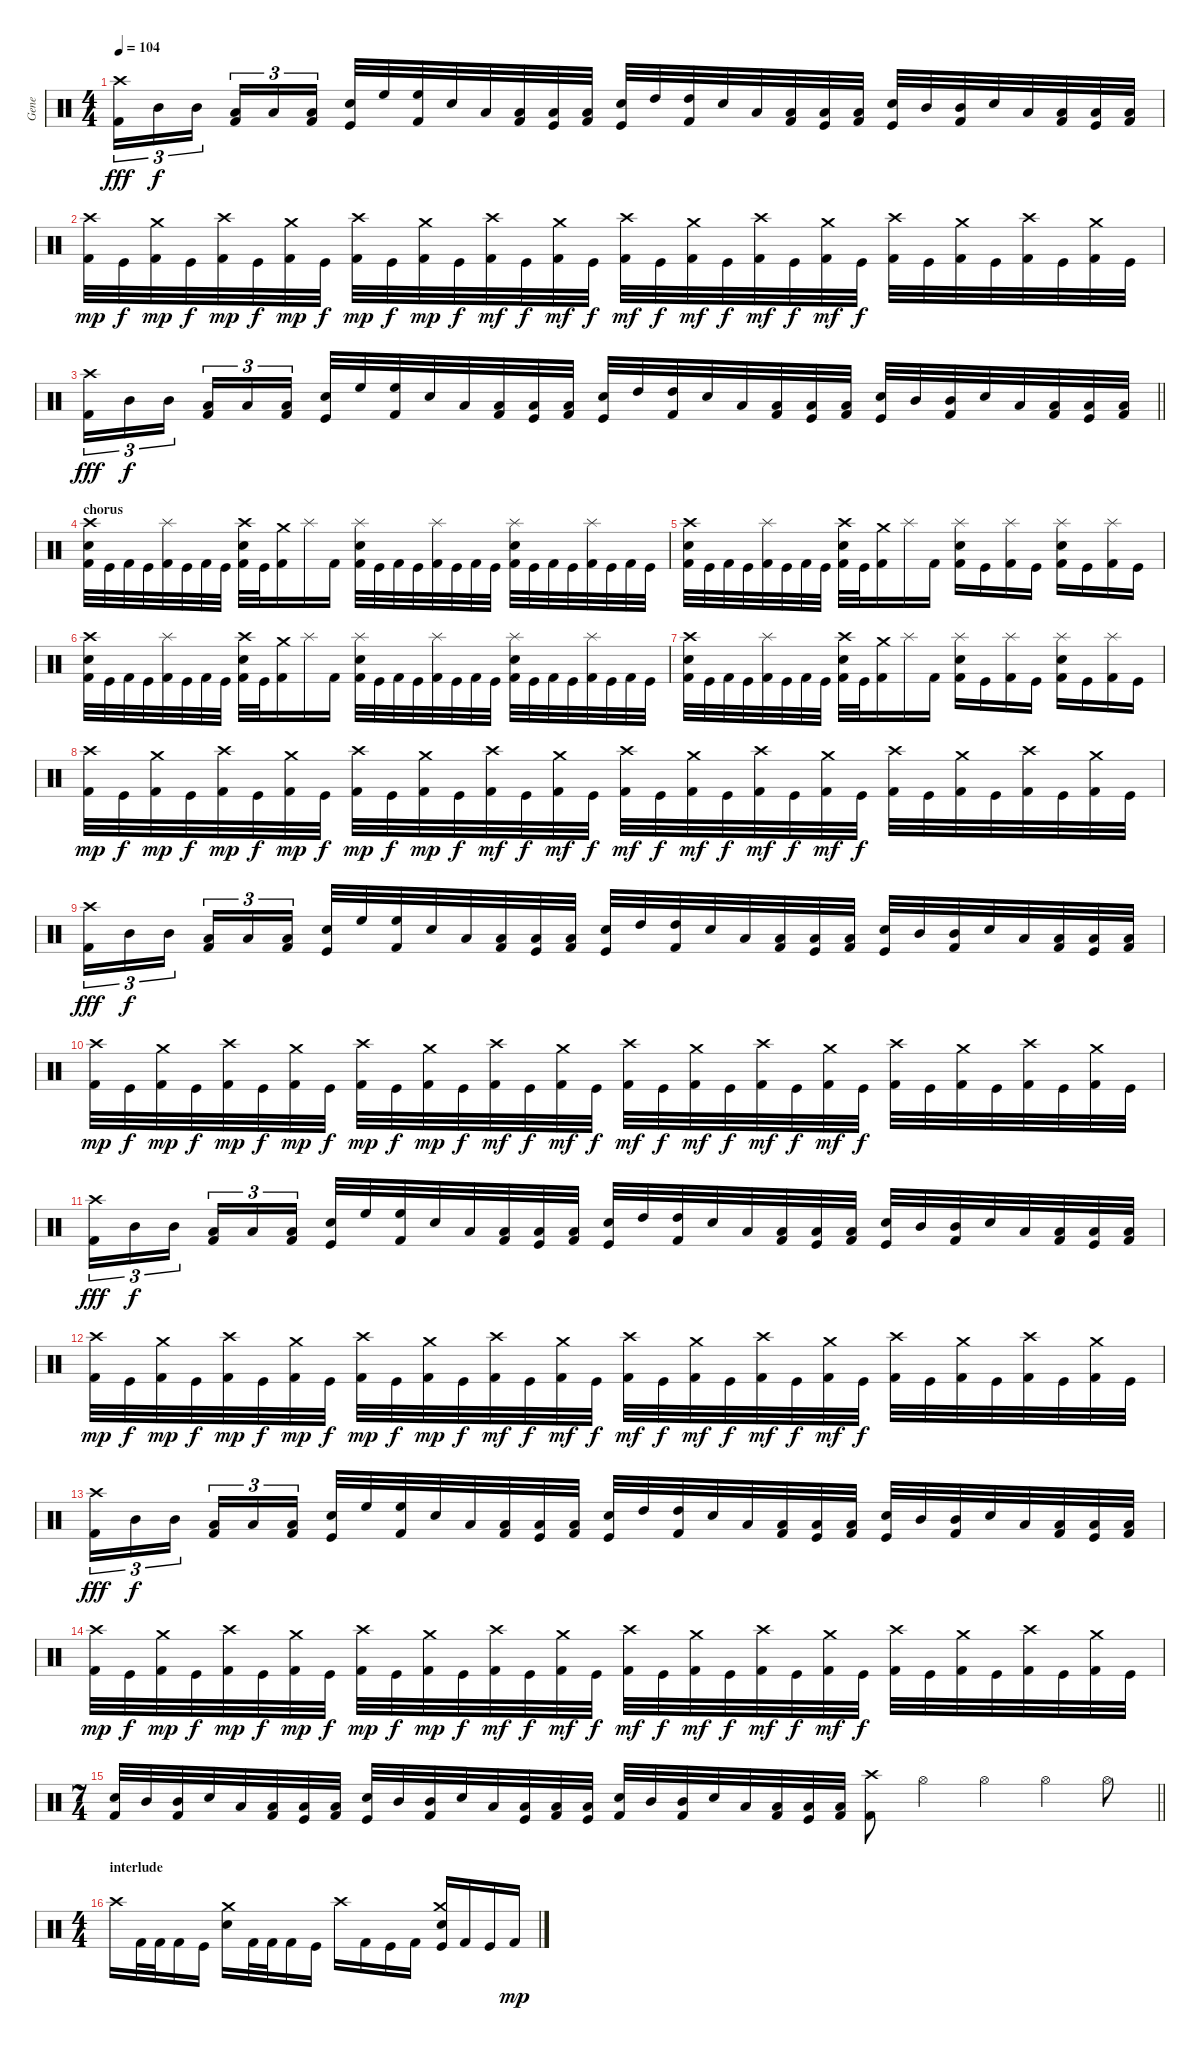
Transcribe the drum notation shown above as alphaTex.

\track ("Gene" "Gene") {instrument percussion}
\staff {score}
\articulation defaults
\ts (4 4)
\tempo 104
\clef neutral
\ks c
("Crash high (hit)" "Kick (hit) 2").16{tu (3 2) dy fff} "Mid Tom (hit)".16{tu (3 2) dy f} "Mid Tom (hit)".16{tu (3 2) beam splitsecondary} ("Low Tom (hit)" "Kick (hit) 2").16{tu (3 2)} "Low Tom (hit)".16{tu (3 2)} ("Low Tom (hit)" "Kick (hit) 2").16{tu (3 2)} ("Electric Snare (hit)" "Kick (hit)").32 "High Floor Tom (hit)".32 ("High Floor Tom (hit)" "Kick (hit) 2").32 "Electric Snare (hit)".32 "Low Tom (hit)".32 ("Low Tom (hit)" "Kick (hit) 2").32 ("Low Tom (hit)" "Kick (hit)").32 ("Low Tom (hit)" "Kick (hit) 2").32 ("Electric Snare (hit)" "Kick (hit)").32 "High Tom (hit)".32 ("High Tom (hit)" "Kick (hit) 2").32 "Electric Snare (hit)".32 "Low Tom (hit)".32 ("Low Tom (hit)" "Kick (hit) 2").32 ("Low Tom (hit)" "Kick (hit)").32 ("Low Tom (hit)" "Kick (hit) 2").32 ("Electric Snare (hit)" "Kick (hit)").32 "Mid Tom (hit)".32 ("Mid Tom (hit)" "Kick (hit) 2").32 "Electric Snare (hit)".32 "Low Tom (hit)".32 ("Low Tom (hit)" "Kick (hit) 2").32 ("Low Tom (hit)" "Kick (hit)").32 ("Low Tom (hit)" "Kick (hit) 2").32 |
("Crash high (hit)" "Kick (hit) 2").32{dy mp} "Kick (hit)".32{dy f} ("Crash medium (hit)" "Kick (hit) 2").32{dy mp} "Kick (hit)".32{dy f} ("Crash high (hit)" "Kick (hit) 2").32{dy mp} "Kick (hit)".32{dy f} ("Crash medium (hit)" "Kick (hit) 2").32{dy mp} "Kick (hit)".32{dy f} ("Crash high (hit)" "Kick (hit) 2").32{dy mp} "Kick (hit)".32{dy f} ("Crash medium (hit)" "Kick (hit) 2").32{dy mp} "Kick (hit)".32{dy f} ("Crash high (hit)" "Kick (hit) 2").32{dy mf} "Kick (hit)".32{dy f} ("Crash medium (hit)" "Kick (hit) 2").32{dy mf} "Kick (hit)".32{dy f} ("Crash high (hit)" "Kick (hit) 2").32{dy mf} "Kick (hit)".32{dy f} ("Crash medium (hit)" "Kick (hit) 2").32{dy mf} "Kick (hit)".32{dy f} ("Crash high (hit)" "Kick (hit) 2").32{dy mf} "Kick (hit)".32{dy f} ("Crash medium (hit)" "Kick (hit) 2").32{dy mf} "Kick (hit)".32{dy f} ("Crash high (hit)" "Kick (hit) 2").32 "Kick (hit)".32 ("Crash medium (hit)" "Kick (hit) 2").32 "Kick (hit)".32 ("Crash high (hit)" "Kick (hit) 2").32 "Kick (hit)".32 ("Crash medium (hit)" "Kick (hit) 2").32 "Kick (hit)".32 |
\barLineRight lightlight
("Crash high (hit)" "Kick (hit) 2").16{tu (3 2) dy fff} "Mid Tom (hit)".16{tu (3 2) dy f} "Mid Tom (hit)".16{tu (3 2) beam splitsecondary} ("Low Tom (hit)" "Kick (hit) 2").16{tu (3 2)} "Low Tom (hit)".16{tu (3 2)} ("Low Tom (hit)" "Kick (hit) 2").16{tu (3 2)} ("Electric Snare (hit)" "Kick (hit)").32 "High Floor Tom (hit)".32 ("High Floor Tom (hit)" "Kick (hit) 2").32 "Electric Snare (hit)".32 "Low Tom (hit)".32 ("Low Tom (hit)" "Kick (hit) 2").32 ("Low Tom (hit)" "Kick (hit)").32 ("Low Tom (hit)" "Kick (hit) 2").32 ("Electric Snare (hit)" "Kick (hit)").32 "High Tom (hit)".32 ("High Tom (hit)" "Kick (hit) 2").32 "Electric Snare (hit)".32 "Low Tom (hit)".32 ("Low Tom (hit)" "Kick (hit) 2").32 ("Low Tom (hit)" "Kick (hit)").32 ("Low Tom (hit)" "Kick (hit) 2").32 ("Electric Snare (hit)" "Kick (hit)").32 "Mid Tom (hit)".32 ("Mid Tom (hit)" "Kick (hit) 2").32 "Electric Snare (hit)".32 "Low Tom (hit)".32 ("Low Tom (hit)" "Kick (hit) 2").32 ("Low Tom (hit)" "Kick (hit)").32 ("Low Tom (hit)" "Kick (hit) 2").32 |
\section ("" "chorus")
("Crash high (hit)" "Snare (hit) 2" "Kick (hit) 2").32 "Kick (hit)".32 "Kick (hit) 2".32 "Kick (hit)".32 ("Splash (hit)" "Kick (hit) 2").32 "Kick (hit)".32 "Kick (hit) 2".32 "Kick (hit)".32 ("Crash high (hit)" "Snare (hit) 2" "Kick (hit) 2").32 "Kick (hit)".32 ("Crash medium (hit)" "Kick (hit) 2").16 "Splash (hit)".16 "Kick (hit) 2".16 ("Splash (hit)" "Snare (hit) 2" "Kick (hit) 2").32 "Kick (hit)".32 "Kick (hit) 2".32 "Kick (hit)".32 ("Splash (hit)" "Kick (hit) 2").32 "Kick (hit)".32 "Kick (hit) 2".32 "Kick (hit)".32 ("Splash (hit)" "Snare (hit) 2" "Kick (hit) 2").32 "Kick (hit)".32 "Kick (hit) 2".32 "Kick (hit)".32 ("Splash (hit)" "Kick (hit) 2").32 "Kick (hit)".32 "Kick (hit) 2".32 "Kick (hit)".32 |
("Crash high (hit)" "Snare (hit) 2" "Kick (hit) 2").32 "Kick (hit)".32 "Kick (hit) 2".32 "Kick (hit)".32 ("Splash (hit)" "Kick (hit) 2").32 "Kick (hit)".32 "Kick (hit) 2".32 "Kick (hit)".32 ("Crash high (hit)" "Snare (hit) 2" "Kick (hit) 2").32 "Kick (hit)".32 ("Crash medium (hit)" "Kick (hit) 2").16 "Splash (hit)".16 "Kick (hit) 2".16 ("Splash (hit)" "Snare (hit) 2" "Kick (hit) 2").16 "Kick (hit)".16 ("Splash (hit)" "Kick (hit) 2").16 "Kick (hit)".16 ("Splash (hit)" "Snare (hit) 2" "Kick (hit) 2").16 "Kick (hit)".16 ("Splash (hit)" "Kick (hit) 2").16 "Kick (hit)".16 |
("Crash high (hit)" "Snare (hit) 2" "Kick (hit) 2").32 "Kick (hit)".32 "Kick (hit) 2".32 "Kick (hit)".32 ("Splash (hit)" "Kick (hit) 2").32 "Kick (hit)".32 "Kick (hit) 2".32 "Kick (hit)".32 ("Crash high (hit)" "Snare (hit) 2" "Kick (hit) 2").32 "Kick (hit)".32 ("Crash medium (hit)" "Kick (hit) 2").16 "Splash (hit)".16 "Kick (hit) 2".16 ("Splash (hit)" "Snare (hit) 2" "Kick (hit) 2").32 "Kick (hit)".32 "Kick (hit) 2".32 "Kick (hit)".32 ("Splash (hit)" "Kick (hit) 2").32 "Kick (hit)".32 "Kick (hit) 2".32 "Kick (hit)".32 ("Splash (hit)" "Snare (hit) 2" "Kick (hit) 2").32 "Kick (hit)".32 "Kick (hit) 2".32 "Kick (hit)".32 ("Splash (hit)" "Kick (hit) 2").32 "Kick (hit)".32 "Kick (hit) 2".32 "Kick (hit)".32 |
("Crash high (hit)" "Snare (hit) 2" "Kick (hit) 2").32 "Kick (hit)".32 "Kick (hit) 2".32 "Kick (hit)".32 ("Splash (hit)" "Kick (hit) 2").32 "Kick (hit)".32 "Kick (hit) 2".32 "Kick (hit)".32 ("Crash high (hit)" "Snare (hit) 2" "Kick (hit) 2").32 "Kick (hit)".32 ("Crash medium (hit)" "Kick (hit) 2").16 "Splash (hit)".16 "Kick (hit) 2".16 ("Splash (hit)" "Snare (hit) 2" "Kick (hit) 2").16 "Kick (hit)".16 ("Splash (hit)" "Kick (hit) 2").16 "Kick (hit)".16 ("Splash (hit)" "Snare (hit) 2" "Kick (hit) 2").16 "Kick (hit)".16 ("Splash (hit)" "Kick (hit) 2").16 "Kick (hit)".16 |
("Crash high (hit)" "Kick (hit) 2").32{dy mp} "Kick (hit)".32{dy f} ("Crash medium (hit)" "Kick (hit) 2").32{dy mp} "Kick (hit)".32{dy f} ("Crash high (hit)" "Kick (hit) 2").32{dy mp} "Kick (hit)".32{dy f} ("Crash medium (hit)" "Kick (hit) 2").32{dy mp} "Kick (hit)".32{dy f} ("Crash high (hit)" "Kick (hit) 2").32{dy mp} "Kick (hit)".32{dy f} ("Crash medium (hit)" "Kick (hit) 2").32{dy mp} "Kick (hit)".32{dy f} ("Crash high (hit)" "Kick (hit) 2").32{dy mf} "Kick (hit)".32{dy f} ("Crash medium (hit)" "Kick (hit) 2").32{dy mf} "Kick (hit)".32{dy f} ("Crash high (hit)" "Kick (hit) 2").32{dy mf} "Kick (hit)".32{dy f} ("Crash medium (hit)" "Kick (hit) 2").32{dy mf} "Kick (hit)".32{dy f} ("Crash high (hit)" "Kick (hit) 2").32{dy mf} "Kick (hit)".32{dy f} ("Crash medium (hit)" "Kick (hit) 2").32{dy mf} "Kick (hit)".32{dy f} ("Crash high (hit)" "Kick (hit) 2").32 "Kick (hit)".32 ("Crash medium (hit)" "Kick (hit) 2").32 "Kick (hit)".32 ("Crash high (hit)" "Kick (hit) 2").32 "Kick (hit)".32 ("Crash medium (hit)" "Kick (hit) 2").32 "Kick (hit)".32 |
("Crash high (hit)" "Kick (hit) 2").16{tu (3 2) dy fff} "Mid Tom (hit)".16{tu (3 2) dy f} "Mid Tom (hit)".16{tu (3 2) beam splitsecondary} ("Low Tom (hit)" "Kick (hit) 2").16{tu (3 2)} "Low Tom (hit)".16{tu (3 2)} ("Low Tom (hit)" "Kick (hit) 2").16{tu (3 2)} ("Electric Snare (hit)" "Kick (hit)").32 "High Floor Tom (hit)".32 ("High Floor Tom (hit)" "Kick (hit) 2").32 "Electric Snare (hit)".32 "Low Tom (hit)".32 ("Low Tom (hit)" "Kick (hit) 2").32 ("Low Tom (hit)" "Kick (hit)").32 ("Low Tom (hit)" "Kick (hit) 2").32 ("Electric Snare (hit)" "Kick (hit)").32 "High Tom (hit)".32 ("High Tom (hit)" "Kick (hit) 2").32 "Electric Snare (hit)".32 "Low Tom (hit)".32 ("Low Tom (hit)" "Kick (hit) 2").32 ("Low Tom (hit)" "Kick (hit)").32 ("Low Tom (hit)" "Kick (hit) 2").32 ("Electric Snare (hit)" "Kick (hit)").32 "Mid Tom (hit)".32 ("Mid Tom (hit)" "Kick (hit) 2").32 "Electric Snare (hit)".32 "Low Tom (hit)".32 ("Low Tom (hit)" "Kick (hit) 2").32 ("Low Tom (hit)" "Kick (hit)").32 ("Low Tom (hit)" "Kick (hit) 2").32 |
("Crash high (hit)" "Kick (hit) 2").32{dy mp} "Kick (hit)".32{dy f} ("Crash medium (hit)" "Kick (hit) 2").32{dy mp} "Kick (hit)".32{dy f} ("Crash high (hit)" "Kick (hit) 2").32{dy mp} "Kick (hit)".32{dy f} ("Crash medium (hit)" "Kick (hit) 2").32{dy mp} "Kick (hit)".32{dy f} ("Crash high (hit)" "Kick (hit) 2").32{dy mp} "Kick (hit)".32{dy f} ("Crash medium (hit)" "Kick (hit) 2").32{dy mp} "Kick (hit)".32{dy f} ("Crash high (hit)" "Kick (hit) 2").32{dy mf} "Kick (hit)".32{dy f} ("Crash medium (hit)" "Kick (hit) 2").32{dy mf} "Kick (hit)".32{dy f} ("Crash high (hit)" "Kick (hit) 2").32{dy mf} "Kick (hit)".32{dy f} ("Crash medium (hit)" "Kick (hit) 2").32{dy mf} "Kick (hit)".32{dy f} ("Crash high (hit)" "Kick (hit) 2").32{dy mf} "Kick (hit)".32{dy f} ("Crash medium (hit)" "Kick (hit) 2").32{dy mf} "Kick (hit)".32{dy f} ("Crash high (hit)" "Kick (hit) 2").32 "Kick (hit)".32 ("Crash medium (hit)" "Kick (hit) 2").32 "Kick (hit)".32 ("Crash high (hit)" "Kick (hit) 2").32 "Kick (hit)".32 ("Crash medium (hit)" "Kick (hit) 2").32 "Kick (hit)".32 |
("Crash high (hit)" "Kick (hit) 2").16{tu (3 2) dy fff} "Mid Tom (hit)".16{tu (3 2) dy f} "Mid Tom (hit)".16{tu (3 2) beam splitsecondary} ("Low Tom (hit)" "Kick (hit) 2").16{tu (3 2)} "Low Tom (hit)".16{tu (3 2)} ("Low Tom (hit)" "Kick (hit) 2").16{tu (3 2)} ("Electric Snare (hit)" "Kick (hit)").32 "High Floor Tom (hit)".32 ("High Floor Tom (hit)" "Kick (hit) 2").32 "Electric Snare (hit)".32 "Low Tom (hit)".32 ("Low Tom (hit)" "Kick (hit) 2").32 ("Low Tom (hit)" "Kick (hit)").32 ("Low Tom (hit)" "Kick (hit) 2").32 ("Electric Snare (hit)" "Kick (hit)").32 "High Tom (hit)".32 ("High Tom (hit)" "Kick (hit) 2").32 "Electric Snare (hit)".32 "Low Tom (hit)".32 ("Low Tom (hit)" "Kick (hit) 2").32 ("Low Tom (hit)" "Kick (hit)").32 ("Low Tom (hit)" "Kick (hit) 2").32 ("Electric Snare (hit)" "Kick (hit)").32 "Mid Tom (hit)".32 ("Mid Tom (hit)" "Kick (hit) 2").32 "Electric Snare (hit)".32 "Low Tom (hit)".32 ("Low Tom (hit)" "Kick (hit) 2").32 ("Low Tom (hit)" "Kick (hit)").32 ("Low Tom (hit)" "Kick (hit) 2").32 |
("Crash high (hit)" "Kick (hit) 2").32{dy mp} "Kick (hit)".32{dy f} ("Crash medium (hit)" "Kick (hit) 2").32{dy mp} "Kick (hit)".32{dy f} ("Crash high (hit)" "Kick (hit) 2").32{dy mp} "Kick (hit)".32{dy f} ("Crash medium (hit)" "Kick (hit) 2").32{dy mp} "Kick (hit)".32{dy f} ("Crash high (hit)" "Kick (hit) 2").32{dy mp} "Kick (hit)".32{dy f} ("Crash medium (hit)" "Kick (hit) 2").32{dy mp} "Kick (hit)".32{dy f} ("Crash high (hit)" "Kick (hit) 2").32{dy mf} "Kick (hit)".32{dy f} ("Crash medium (hit)" "Kick (hit) 2").32{dy mf} "Kick (hit)".32{dy f} ("Crash high (hit)" "Kick (hit) 2").32{dy mf} "Kick (hit)".32{dy f} ("Crash medium (hit)" "Kick (hit) 2").32{dy mf} "Kick (hit)".32{dy f} ("Crash high (hit)" "Kick (hit) 2").32{dy mf} "Kick (hit)".32{dy f} ("Crash medium (hit)" "Kick (hit) 2").32{dy mf} "Kick (hit)".32{dy f} ("Crash high (hit)" "Kick (hit) 2").32 "Kick (hit)".32 ("Crash medium (hit)" "Kick (hit) 2").32 "Kick (hit)".32 ("Crash high (hit)" "Kick (hit) 2").32 "Kick (hit)".32 ("Crash medium (hit)" "Kick (hit) 2").32 "Kick (hit)".32 |
("Crash high (hit)" "Kick (hit) 2").16{tu (3 2) dy fff} "Mid Tom (hit)".16{tu (3 2) dy f} "Mid Tom (hit)".16{tu (3 2) beam splitsecondary} ("Low Tom (hit)" "Kick (hit) 2").16{tu (3 2)} "Low Tom (hit)".16{tu (3 2)} ("Low Tom (hit)" "Kick (hit) 2").16{tu (3 2)} ("Electric Snare (hit)" "Kick (hit)").32 "High Floor Tom (hit)".32 ("High Floor Tom (hit)" "Kick (hit) 2").32 "Electric Snare (hit)".32 "Low Tom (hit)".32 ("Low Tom (hit)" "Kick (hit) 2").32 ("Low Tom (hit)" "Kick (hit)").32 ("Low Tom (hit)" "Kick (hit) 2").32 ("Electric Snare (hit)" "Kick (hit)").32 "High Tom (hit)".32 ("High Tom (hit)" "Kick (hit) 2").32 "Electric Snare (hit)".32 "Low Tom (hit)".32 ("Low Tom (hit)" "Kick (hit) 2").32 ("Low Tom (hit)" "Kick (hit)").32 ("Low Tom (hit)" "Kick (hit) 2").32 ("Electric Snare (hit)" "Kick (hit)").32 "Mid Tom (hit)".32 ("Mid Tom (hit)" "Kick (hit) 2").32 "Electric Snare (hit)".32 "Low Tom (hit)".32 ("Low Tom (hit)" "Kick (hit) 2").32 ("Low Tom (hit)" "Kick (hit)").32 ("Low Tom (hit)" "Kick (hit) 2").32 |
("Crash high (hit)" "Kick (hit) 2").32{dy mp} "Kick (hit)".32{dy f} ("Crash medium (hit)" "Kick (hit) 2").32{dy mp} "Kick (hit)".32{dy f} ("Crash high (hit)" "Kick (hit) 2").32{dy mp} "Kick (hit)".32{dy f} ("Crash medium (hit)" "Kick (hit) 2").32{dy mp} "Kick (hit)".32{dy f} ("Crash high (hit)" "Kick (hit) 2").32{dy mp} "Kick (hit)".32{dy f} ("Crash medium (hit)" "Kick (hit) 2").32{dy mp} "Kick (hit)".32{dy f} ("Crash high (hit)" "Kick (hit) 2").32{dy mf} "Kick (hit)".32{dy f} ("Crash medium (hit)" "Kick (hit) 2").32{dy mf} "Kick (hit)".32{dy f} ("Crash high (hit)" "Kick (hit) 2").32{dy mf} "Kick (hit)".32{dy f} ("Crash medium (hit)" "Kick (hit) 2").32{dy mf} "Kick (hit)".32{dy f} ("Crash high (hit)" "Kick (hit) 2").32{dy mf} "Kick (hit)".32{dy f} ("Crash medium (hit)" "Kick (hit) 2").32{dy mf} "Kick (hit)".32{dy f} ("Crash high (hit)" "Kick (hit) 2").32 "Kick (hit)".32 ("Crash medium (hit)" "Kick (hit) 2").32 "Kick (hit)".32 ("Crash high (hit)" "Kick (hit) 2").32 "Kick (hit)".32 ("Crash medium (hit)" "Kick (hit) 2").32 "Kick (hit)".32 |
\ts (7 4)
\barLineRight lightlight
("Electric Snare (hit)" "Kick (hit) 2").32 "Mid Tom (hit)".32 ("Mid Tom (hit)" "Kick (hit) 2").32 "Electric Snare (hit)".32 "Low Tom (hit)".32 ("Low Tom (hit)" "Kick (hit) 2").32 ("Low Tom (hit)" "Kick (hit)").32 ("Low Tom (hit)" "Kick (hit) 2").32 ("Electric Snare (hit)" "Kick (hit)").32 "Mid Tom (hit)".32 ("Mid Tom (hit)" "Kick (hit) 2").32 "Electric Snare (hit)".32 "Low Tom (hit)".32 ("Low Tom (hit)" "Kick (hit)").32 ("Low Tom (hit)" "Kick (hit) 2").32 ("Low Tom (hit)" "Kick (hit)").32 ("Electric Snare (hit)" "Kick (hit) 2").32 "Mid Tom (hit)".32 ("Mid Tom (hit)" "Kick (hit) 2").32 "Electric Snare (hit)".32 "Low Tom (hit)".32 ("Low Tom (hit)" "Kick (hit) 2").32 ("Low Tom (hit)" "Kick (hit)").32 ("Low Tom (hit)" "Kick (hit) 2").32 ("Crash high (hit)" "Kick (hit) 2").8 "Hi-Hat (open)".4 "Hi-Hat (open)".4 "Hi-Hat (open)".4 "Hi-Hat (open)".8 |
\ts (4 4)
\section ("" "interlude")
"Crash high (hit)".16 "Kick (hit) 2".32 "Kick (hit) 2".32 "Kick (hit) 2".16 "Kick (hit)".16 ("Crash medium (hit)" "Snare (hit) 2").16 "Kick (hit) 2".32 "Kick (hit) 2".32 "Kick (hit) 2".16 "Kick (hit)".16 "Crash high (hit)".16 "Kick (hit) 2".16 "Kick (hit)".16 "Kick (hit) 2".16 ("Crash medium (hit)" "Snare (hit) 2" "Kick (hit)").16 "Kick (hit) 2".16 "Kick (hit)".16 "Kick (hit) 2".16{dy mp}
